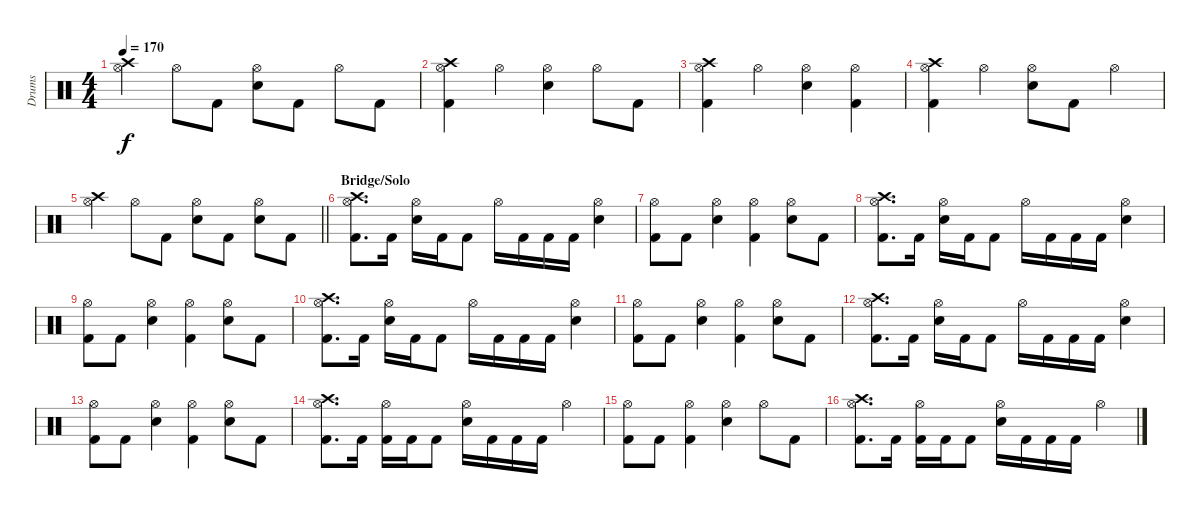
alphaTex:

\track ("Drums" "Drums") {instrument percussion}
\staff {score}
\articulation defaults
\ts (4 4)
\tempo 170
\clef neutral
\ks c
("Crash high (hit)" "Hi-Hat (open)").4{dy f} "Hi-Hat (open)".8 "Kick (hit) 2".8 ("Hi-Hat (open)" "Electric Snare (hit)").8 "Kick (hit) 2".8 "Hi-Hat (open)".8 "Kick (hit) 2".8 |
("Crash high (hit)" "Hi-Hat (open)" "Kick (hit) 2").4 "Hi-Hat (open)".4 ("Hi-Hat (open)" "Electric Snare (hit)").4 "Hi-Hat (open)".8 "Kick (hit) 2".8 |
("Crash high (hit)" "Hi-Hat (open)" "Kick (hit) 2").4 "Hi-Hat (open)".4 ("Hi-Hat (open)" "Electric Snare (hit)").4 ("Hi-Hat (open)" "Kick (hit) 2").4 |
("Crash high (hit)" "Hi-Hat (open)" "Kick (hit) 2").4 "Hi-Hat (open)".4 ("Hi-Hat (open)" "Electric Snare (hit)").8 "Kick (hit) 2".8 "Hi-Hat (open)".4 |
\barLineRight lightlight
("Crash high (hit)" "Hi-Hat (open)").4 "Hi-Hat (open)".8 "Kick (hit) 2".8 ("Hi-Hat (open)" "Electric Snare (hit)").8 "Kick (hit) 2".8 ("Hi-Hat (open)" "Electric Snare (hit)").8 "Kick (hit) 2".8 |
\section ("" "Bridge/Solo")
("Crash high (hit)" "Hi-Hat (open)" "Kick (hit) 2").8{d} "Kick (hit) 2".16 ("Hi-Hat (open)" "Electric Snare (hit)").16 "Kick (hit) 2".16 "Kick (hit) 2".8 "Hi-Hat (open)".16 "Kick (hit) 2".16 "Kick (hit) 2".16 "Kick (hit) 2".16 ("Hi-Hat (open)" "Electric Snare (hit)").4 |
("Hi-Hat (open)" "Kick (hit) 2").8 "Kick (hit) 2".8 ("Hi-Hat (open)" "Electric Snare (hit)").4 ("Hi-Hat (open)" "Kick (hit) 2").4 ("Hi-Hat (open)" "Electric Snare (hit)").8 "Kick (hit) 2".8 |
("Crash high (hit)" "Hi-Hat (open)" "Kick (hit) 2").8{d} "Kick (hit) 2".16 ("Hi-Hat (open)" "Electric Snare (hit)").16 "Kick (hit) 2".16 "Kick (hit) 2".8 "Hi-Hat (open)".16 "Kick (hit) 2".16 "Kick (hit) 2".16 "Kick (hit) 2".16 ("Hi-Hat (open)" "Electric Snare (hit)").4 |
("Hi-Hat (open)" "Kick (hit) 2").8 "Kick (hit) 2".8 ("Hi-Hat (open)" "Electric Snare (hit)").4 ("Hi-Hat (open)" "Kick (hit) 2").4 ("Hi-Hat (open)" "Electric Snare (hit)").8 "Kick (hit) 2".8 |
("Crash high (hit)" "Hi-Hat (open)" "Kick (hit) 2").8{d} "Kick (hit) 2".16 ("Hi-Hat (open)" "Electric Snare (hit)").16 "Kick (hit) 2".16 "Kick (hit) 2".8 "Hi-Hat (open)".16 "Kick (hit) 2".16 "Kick (hit) 2".16 "Kick (hit) 2".16 ("Hi-Hat (open)" "Electric Snare (hit)").4 |
("Hi-Hat (open)" "Kick (hit) 2").8 "Kick (hit) 2".8 ("Hi-Hat (open)" "Electric Snare (hit)").4 ("Hi-Hat (open)" "Kick (hit) 2").4 ("Hi-Hat (open)" "Electric Snare (hit)").8 "Kick (hit) 2".8 |
("Crash high (hit)" "Hi-Hat (open)" "Kick (hit) 2").8{d} "Kick (hit) 2".16 ("Hi-Hat (open)" "Electric Snare (hit)").16 "Kick (hit) 2".16 "Kick (hit) 2".8 "Hi-Hat (open)".16 "Kick (hit) 2".16 "Kick (hit) 2".16 "Kick (hit) 2".16 ("Hi-Hat (open)" "Electric Snare (hit)").4 |
("Hi-Hat (open)" "Kick (hit) 2").8 "Kick (hit) 2".8 ("Hi-Hat (open)" "Electric Snare (hit)").4 ("Hi-Hat (open)" "Kick (hit) 2").4 ("Hi-Hat (open)" "Electric Snare (hit)").8 "Kick (hit) 2".8 |
("Crash high (hit)" "Hi-Hat (open)" "Kick (hit) 2").8{d} "Kick (hit) 2".16 ("Hi-Hat (open)" "Kick (hit) 2").16 "Kick (hit) 2".16 "Kick (hit) 2".8 ("Hi-Hat (open)" "Electric Snare (hit)").16 "Kick (hit) 2".16 "Kick (hit) 2".16 "Kick (hit) 2".16 "Hi-Hat (open)".4 |
("Hi-Hat (open)" "Kick (hit) 2").8 "Kick (hit) 2".8 ("Hi-Hat (open)" "Kick (hit) 2").4 ("Hi-Hat (open)" "Electric Snare (hit)").4 "Hi-Hat (open)".8 "Kick (hit) 2".8 |
("Crash high (hit)" "Hi-Hat (open)" "Kick (hit) 2").8{d} "Kick (hit) 2".16 ("Hi-Hat (open)" "Kick (hit) 2").16 "Kick (hit) 2".16 "Kick (hit) 2".8 ("Hi-Hat (open)" "Electric Snare (hit)").16 "Kick (hit) 2".16 "Kick (hit) 2".16 "Kick (hit) 2".16 "Hi-Hat (open)".4
